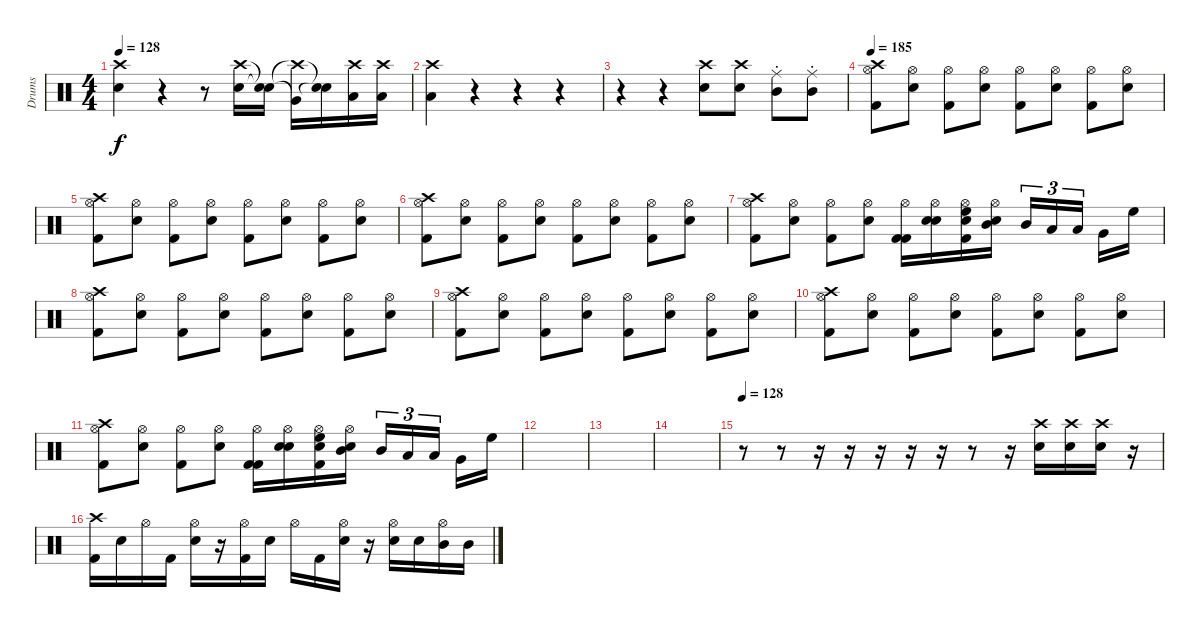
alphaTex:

\track ("Drums" "Drums") {instrument percussion}
\staff {score}
\articulation defaults
\ts (4 4)
\tempo 128
\clef neutral
\ks c
("Crash high (hit)" "Electric Snare (hit)").4{dy f} r.4 r.8 ("Electric Snare (hit)" "Crash high (hit)").16 ("Electric Snare (hit)"{t} "Electric Snare (hit)"{t}).16 ("Crash high (hit)"{t} "Very Low Tom (hit)"{t}).16 ("Snare (hit)"{t} "Snare (hit)"{t}).16 ("Crash high (hit)" "Low Tom (hit)").16 ("Crash high (hit)" "Low Tom (hit)").16 |
("Crash high (hit)" "Low Tom (hit)").4 r.4 r.4 r.4 |
r.4 r.4 ("Electric Snare (hit)" "Crash high (hit)").8 ("Electric Snare (hit)" "Crash high (hit)").8 ("Mid Tom (hit)" "Ride (choke)").8 ("Mid Tom (hit)" "Ride (choke)").8 |
\tempo 185
("Crash high (hit)" "Hi-Hat (open)" "Kick (hit) 2").8 ("Hi-Hat (open)" "Snare (hit) 2").8 ("Hi-Hat (open)" "Kick (hit) 2").8 ("Hi-Hat (open)" "Snare (hit) 2").8 ("Hi-Hat (open)" "Kick (hit) 2").8 ("Hi-Hat (open)" "Snare (hit) 2").8 ("Hi-Hat (open)" "Kick (hit) 2").8 ("Hi-Hat (open)" "Snare (hit) 2").8 |
("Crash high (hit)" "Hi-Hat (open)" "Kick (hit) 2").8 ("Hi-Hat (open)" "Snare (hit) 2").8 ("Hi-Hat (open)" "Kick (hit) 2").8 ("Hi-Hat (open)" "Snare (hit) 2").8 ("Hi-Hat (open)" "Kick (hit) 2").8 ("Hi-Hat (open)" "Snare (hit) 2").8 ("Hi-Hat (open)" "Kick (hit) 2").8 ("Hi-Hat (open)" "Snare (hit) 2").8 |
("Crash high (hit)" "Hi-Hat (open)" "Kick (hit) 2").8 ("Hi-Hat (open)" "Snare (hit) 2").8 ("Hi-Hat (open)" "Kick (hit) 2").8 ("Hi-Hat (open)" "Snare (hit) 2").8 ("Hi-Hat (open)" "Kick (hit) 2").8 ("Hi-Hat (open)" "Snare (hit) 2").8 ("Hi-Hat (open)" "Kick (hit) 2").8 ("Hi-Hat (open)" "Snare (hit) 2").8 |
("Crash high (hit)" "Hi-Hat (open)" "Kick (hit) 2").8 ("Hi-Hat (open)" "Snare (hit) 2").8 ("Hi-Hat (open)" "Kick (hit) 2").8 ("Hi-Hat (open)" "Snare (hit) 2").8 ("Hi-Hat (open)" "Kick (hit) 2" "Kick (hit) 2").16 ("Hi-Hat (open)" "Snare (hit) 2" "Electric Snare (hit)").16 ("Hi-Hat (open)" "High Floor Tom (hit)" "Electric Snare (hit)" "Kick (hit) 2").16 ("Hi-Hat (open)" "Snare (hit) 2" "Mid Tom (hit)").16 "Mid Tom (hit)".16{tu (3 2)} "Low Tom (hit)".16{tu (3 2)} "Low Tom (hit)".16{tu (3 2)} "Very Low Tom (hit)".16 "High Floor Tom (hit)".16 |
("Crash high (hit)" "Hi-Hat (open)" "Kick (hit) 2").8 ("Hi-Hat (open)" "Snare (hit) 2").8 ("Hi-Hat (open)" "Kick (hit) 2").8 ("Hi-Hat (open)" "Snare (hit) 2").8 ("Hi-Hat (open)" "Kick (hit) 2").8 ("Hi-Hat (open)" "Snare (hit) 2").8 ("Hi-Hat (open)" "Kick (hit) 2").8 ("Hi-Hat (open)" "Snare (hit) 2").8 |
("Crash high (hit)" "Hi-Hat (open)" "Kick (hit) 2").8 ("Hi-Hat (open)" "Snare (hit) 2").8 ("Hi-Hat (open)" "Kick (hit) 2").8 ("Hi-Hat (open)" "Snare (hit) 2").8 ("Hi-Hat (open)" "Kick (hit) 2").8 ("Hi-Hat (open)" "Snare (hit) 2").8 ("Hi-Hat (open)" "Kick (hit) 2").8 ("Hi-Hat (open)" "Snare (hit) 2").8 |
("Crash high (hit)" "Hi-Hat (open)" "Kick (hit) 2").8 ("Hi-Hat (open)" "Snare (hit) 2").8 ("Hi-Hat (open)" "Kick (hit) 2").8 ("Hi-Hat (open)" "Snare (hit) 2").8 ("Hi-Hat (open)" "Kick (hit) 2").8 ("Hi-Hat (open)" "Snare (hit) 2").8 ("Hi-Hat (open)" "Kick (hit) 2").8 ("Hi-Hat (open)" "Snare (hit) 2").8 |
("Crash high (hit)" "Hi-Hat (open)" "Kick (hit) 2").8 ("Hi-Hat (open)" "Snare (hit) 2").8 ("Hi-Hat (open)" "Kick (hit) 2").8 ("Hi-Hat (open)" "Snare (hit) 2").8 ("Hi-Hat (open)" "Kick (hit) 2" "Kick (hit) 2").16 ("Hi-Hat (open)" "Snare (hit) 2" "Electric Snare (hit)").16 ("Hi-Hat (open)" "High Floor Tom (hit)" "Electric Snare (hit)" "Kick (hit) 2").16 ("Hi-Hat (open)" "Snare (hit) 2" "Mid Tom (hit)").16 "Mid Tom (hit)".16{tu (3 2)} "Low Tom (hit)".16{tu (3 2)} "Low Tom (hit)".16{tu (3 2)} "Very Low Tom (hit)".16 "High Floor Tom (hit)".16 |
|
|
|
\tempo 128
r.8 r.8 r.16 r.16 r.16 r.16 r.16 r.8 r.16 ("Snare (hit) 2" "Crash high (hit)").16 ("Snare (hit) 2" "Crash high (hit)").16 ("Snare (hit) 2" "Crash high (hit)").16 r.16 |
("Kick (hit) 2" "Crash high (hit)").16 "Electric Snare (hit)".16 "Hi-Hat (open)".16 "Kick (hit) 2".16 ("Electric Snare (hit)" "Hi-Hat (open)").16 r.16 ("Kick (hit) 2" "Hi-Hat (open)").16 "Electric Snare (hit)".16 "Hi-Hat (open)".16 "Kick (hit) 2".16 ("Electric Snare (hit)" "Hi-Hat (open)").16 r.16 ("Electric Snare (hit)" "Hi-Hat (open)").16 "Electric Snare (hit)".16 ("Mid Tom (hit)" "Hi-Hat (open)").16 "Mid Tom (hit)".16
